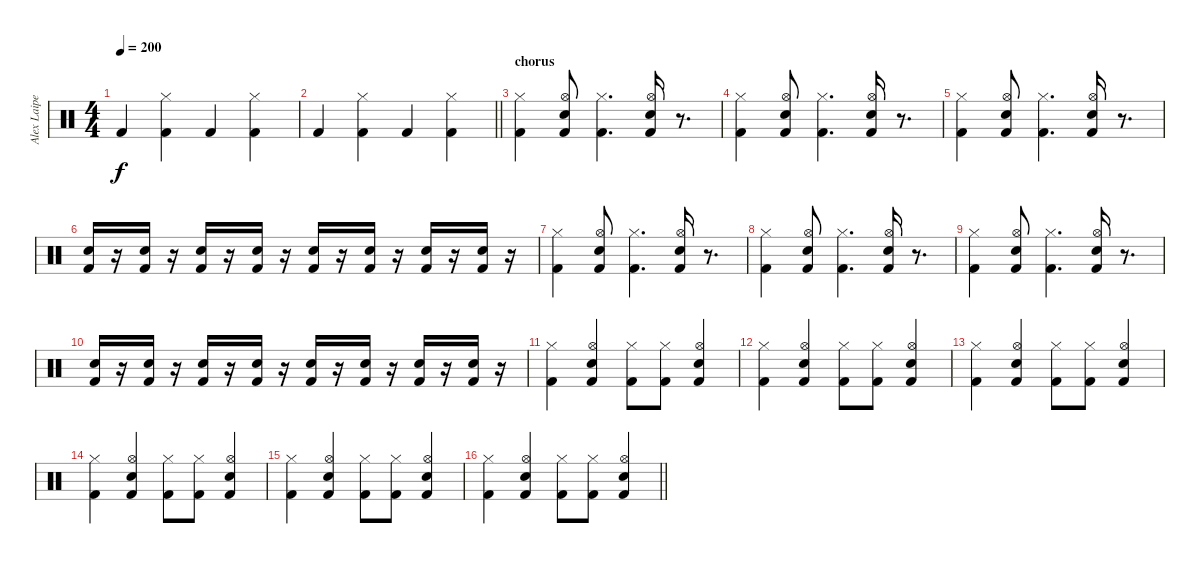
\track ("Alex Laipeneiks - Drums" "Alex Laipe") {instrument percussion}
\staff {score}
\articulation defaults
\ts (4 4)
\tempo 200
\clef neutral
\ks c "Kick (hit) 2".4{dy f}
("Hi-Hat (closed)" "Kick (hit) 2").4 "Kick (hit) 2".4 ("Hi-Hat (closed)" "Kick (hit) 2").4 |
\barLineRight lightlight "Kick (hit) 2".4
("Hi-Hat (closed)" "Kick (hit) 2").4 "Kick (hit) 2".4 ("Hi-Hat (closed)" "Kick (hit) 2").4 |
\section ("" "chorus")
("Hi-Hat (closed)" "Kick (hit) 2").4 ("Hi-Hat (open)" "Snare (hit) 2" "Kick (hit) 2").8 ("Hi-Hat (closed)" "Kick (hit) 2").4{d} ("Hi-Hat (open)" "Snare (hit) 2" "Kick (hit) 2").16 r.8{d} |
("Hi-Hat (closed)" "Kick (hit) 2").4 ("Hi-Hat (open)" "Snare (hit) 2" "Kick (hit) 2").8 ("Hi-Hat (closed)" "Kick (hit) 2").4{d} ("Hi-Hat (open)" "Snare (hit) 2" "Kick (hit) 2").16 r.8{d} |
("Hi-Hat (closed)" "Kick (hit) 2").4 ("Hi-Hat (open)" "Snare (hit) 2" "Kick (hit) 2").8 ("Hi-Hat (closed)" "Kick (hit) 2").4{d} ("Hi-Hat (open)" "Snare (hit) 2" "Kick (hit) 2").16 r.8{d} |
("Snare (hit) 2" "Kick (hit) 2").16 r.16 ("Snare (hit) 2" "Kick (hit) 2").16 r.16 ("Snare (hit) 2" "Kick (hit) 2").16 r.16 ("Snare (hit) 2" "Kick (hit) 2").16 r.16 ("Snare (hit) 2" "Kick (hit) 2").16 r.16 ("Snare (hit) 2" "Kick (hit) 2").16 r.16 ("Snare (hit) 2" "Kick (hit) 2").16 r.16 ("Snare (hit) 2" "Kick (hit) 2").16 r.16 |
("Hi-Hat (closed)" "Kick (hit) 2").4 ("Hi-Hat (open)" "Snare (hit) 2" "Kick (hit) 2").8 ("Hi-Hat (closed)" "Kick (hit) 2").4{d} ("Hi-Hat (open)" "Snare (hit) 2" "Kick (hit) 2").16 r.8{d} |
("Hi-Hat (closed)" "Kick (hit) 2").4 ("Hi-Hat (open)" "Snare (hit) 2" "Kick (hit) 2").8 ("Hi-Hat (closed)" "Kick (hit) 2").4{d} ("Hi-Hat (open)" "Snare (hit) 2" "Kick (hit) 2").16 r.8{d} |
("Hi-Hat (closed)" "Kick (hit) 2").4 ("Hi-Hat (open)" "Snare (hit) 2" "Kick (hit) 2").8 ("Hi-Hat (closed)" "Kick (hit) 2").4{d} ("Hi-Hat (open)" "Snare (hit) 2" "Kick (hit) 2").16 r.8{d} |
("Snare (hit) 2" "Kick (hit) 2").16 r.16 ("Snare (hit) 2" "Kick (hit) 2").16 r.16 ("Snare (hit) 2" "Kick (hit) 2").16 r.16 ("Snare (hit) 2" "Kick (hit) 2").16 r.16 ("Snare (hit) 2" "Kick (hit) 2").16 r.16 ("Snare (hit) 2" "Kick (hit) 2").16 r.16 ("Snare (hit) 2" "Kick (hit) 2").16 r.16 ("Snare (hit) 2" "Kick (hit) 2").16 r.16 |
("Hi-Hat (closed)" "Kick (hit) 2").4 ("Hi-Hat (open)" "Snare (hit) 2" "Kick (hit) 2").4 ("Hi-Hat (closed)" "Kick (hit) 2").8 ("Hi-Hat (closed)" "Kick (hit) 2").8 ("Hi-Hat (open)" "Snare (hit) 2" "Kick (hit) 2").4 |
("Hi-Hat (closed)" "Kick (hit) 2").4 ("Hi-Hat (open)" "Snare (hit) 2" "Kick (hit) 2").4 ("Hi-Hat (closed)" "Kick (hit) 2").8 ("Hi-Hat (closed)" "Kick (hit) 2").8 ("Hi-Hat (open)" "Snare (hit) 2" "Kick (hit) 2").4 |
("Hi-Hat (closed)" "Kick (hit) 2").4 ("Hi-Hat (open)" "Snare (hit) 2" "Kick (hit) 2").4 ("Hi-Hat (closed)" "Kick (hit) 2").8 ("Hi-Hat (closed)" "Kick (hit) 2").8 ("Hi-Hat (open)" "Snare (hit) 2" "Kick (hit) 2").4 |
("Hi-Hat (closed)" "Kick (hit) 2").4 ("Hi-Hat (open)" "Snare (hit) 2" "Kick (hit) 2").4 ("Hi-Hat (closed)" "Kick (hit) 2").8 ("Hi-Hat (closed)" "Kick (hit) 2").8 ("Hi-Hat (open)" "Snare (hit) 2" "Kick (hit) 2").4 |
("Hi-Hat (closed)" "Kick (hit) 2").4 ("Hi-Hat (open)" "Snare (hit) 2" "Kick (hit) 2").4 ("Hi-Hat (closed)" "Kick (hit) 2").8 ("Hi-Hat (closed)" "Kick (hit) 2").8 ("Hi-Hat (open)" "Snare (hit) 2" "Kick (hit) 2").4 |
\barLineRight lightlight
("Hi-Hat (closed)" "Kick (hit) 2").4 ("Hi-Hat (open)" "Snare (hit) 2" "Kick (hit) 2").4 ("Hi-Hat (closed)" "Kick (hit) 2").8 ("Hi-Hat (closed)" "Kick (hit) 2").8 ("Hi-Hat (open)" "Snare (hit) 2" "Kick (hit) 2").4
